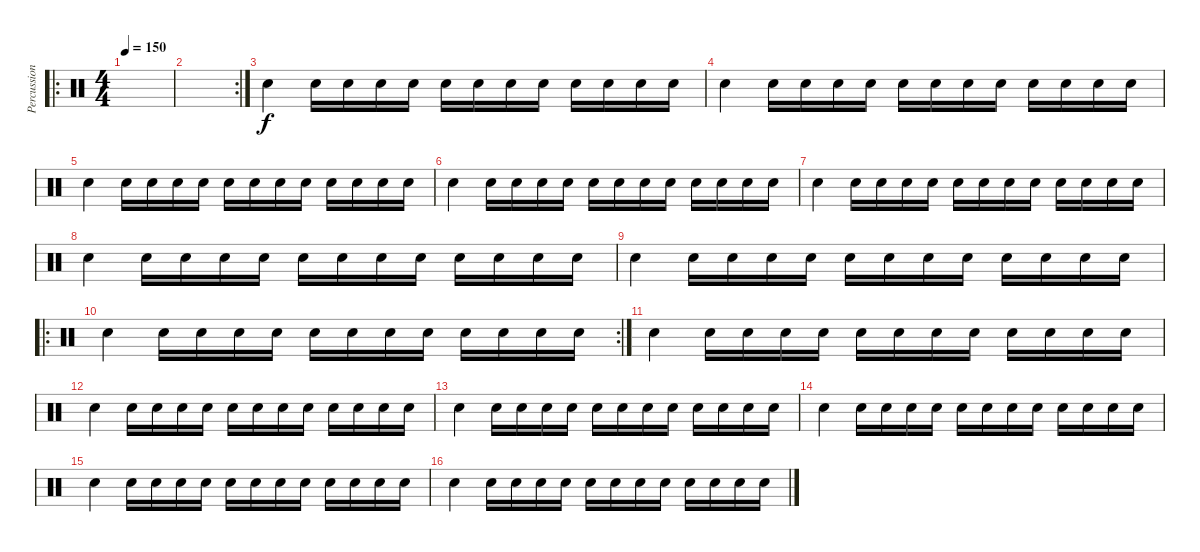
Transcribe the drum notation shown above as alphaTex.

\track ("Percussion" "Percussion") {instrument percussion}
\staff {score}
\articulation defaults
\ro
\ts (4 4)
\tempo 150
\clef neutral
\ks c
|
\rc 2
|
"Snare (hit) 2".4 "Snare (hit) 2".16 "Snare (hit) 2".16 "Snare (hit) 2".16 "Snare (hit) 2".16 "Snare (hit) 2".16 "Snare (hit) 2".16 "Snare (hit) 2".16 "Snare (hit) 2".16 "Snare (hit) 2".16 "Snare (hit) 2".16 "Snare (hit) 2".16 "Snare (hit) 2".16 |
"Snare (hit) 2".4 "Snare (hit) 2".16 "Snare (hit) 2".16 "Snare (hit) 2".16 "Snare (hit) 2".16 "Snare (hit) 2".16 "Snare (hit) 2".16 "Snare (hit) 2".16 "Snare (hit) 2".16 "Snare (hit) 2".16 "Snare (hit) 2".16 "Snare (hit) 2".16 "Snare (hit) 2".16 |
"Snare (hit) 2".4 "Snare (hit) 2".16 "Snare (hit) 2".16 "Snare (hit) 2".16 "Snare (hit) 2".16 "Snare (hit) 2".16 "Snare (hit) 2".16 "Snare (hit) 2".16 "Snare (hit) 2".16 "Snare (hit) 2".16 "Snare (hit) 2".16 "Snare (hit) 2".16 "Snare (hit) 2".16 |
"Snare (hit) 2".4 "Snare (hit) 2".16 "Snare (hit) 2".16 "Snare (hit) 2".16 "Snare (hit) 2".16 "Snare (hit) 2".16 "Snare (hit) 2".16 "Snare (hit) 2".16 "Snare (hit) 2".16 "Snare (hit) 2".16 "Snare (hit) 2".16 "Snare (hit) 2".16 "Snare (hit) 2".16 |
"Snare (hit) 2".4 "Snare (hit) 2".16 "Snare (hit) 2".16 "Snare (hit) 2".16 "Snare (hit) 2".16 "Snare (hit) 2".16 "Snare (hit) 2".16 "Snare (hit) 2".16 "Snare (hit) 2".16 "Snare (hit) 2".16 "Snare (hit) 2".16 "Snare (hit) 2".16 "Snare (hit) 2".16 |
"Snare (hit) 2".4 "Snare (hit) 2".16 "Snare (hit) 2".16 "Snare (hit) 2".16 "Snare (hit) 2".16 "Snare (hit) 2".16 "Snare (hit) 2".16 "Snare (hit) 2".16 "Snare (hit) 2".16 "Snare (hit) 2".16 "Snare (hit) 2".16 "Snare (hit) 2".16 "Snare (hit) 2".16 |
"Snare (hit) 2".4 "Snare (hit) 2".16 "Snare (hit) 2".16 "Snare (hit) 2".16 "Snare (hit) 2".16 "Snare (hit) 2".16 "Snare (hit) 2".16 "Snare (hit) 2".16 "Snare (hit) 2".16 "Snare (hit) 2".16 "Snare (hit) 2".16 "Snare (hit) 2".16 "Snare (hit) 2".16 |
\ro
\rc 2 "Snare (hit) 2".4 "Snare (hit) 2".16 "Snare (hit) 2".16 "Snare (hit) 2".16 "Snare (hit) 2".16 "Snare (hit) 2".16 "Snare (hit) 2".16 "Snare (hit) 2".16 "Snare (hit) 2".16 "Snare (hit) 2".16 "Snare (hit) 2".16 "Snare (hit) 2".16 "Snare (hit) 2".16
|
"Snare (hit) 2".4 "Snare (hit) 2".16 "Snare (hit) 2".16 "Snare (hit) 2".16 "Snare (hit) 2".16 "Snare (hit) 2".16 "Snare (hit) 2".16 "Snare (hit) 2".16 "Snare (hit) 2".16 "Snare (hit) 2".16 "Snare (hit) 2".16 "Snare (hit) 2".16 "Snare (hit) 2".16 |
"Snare (hit) 2".4 "Snare (hit) 2".16 "Snare (hit) 2".16 "Snare (hit) 2".16 "Snare (hit) 2".16 "Snare (hit) 2".16 "Snare (hit) 2".16 "Snare (hit) 2".16 "Snare (hit) 2".16 "Snare (hit) 2".16 "Snare (hit) 2".16 "Snare (hit) 2".16 "Snare (hit) 2".16 |
"Snare (hit) 2".4 "Snare (hit) 2".16 "Snare (hit) 2".16 "Snare (hit) 2".16 "Snare (hit) 2".16 "Snare (hit) 2".16 "Snare (hit) 2".16 "Snare (hit) 2".16 "Snare (hit) 2".16 "Snare (hit) 2".16 "Snare (hit) 2".16 "Snare (hit) 2".16 "Snare (hit) 2".16 |
"Snare (hit) 2".4 "Snare (hit) 2".16 "Snare (hit) 2".16 "Snare (hit) 2".16 "Snare (hit) 2".16 "Snare (hit) 2".16 "Snare (hit) 2".16 "Snare (hit) 2".16 "Snare (hit) 2".16 "Snare (hit) 2".16 "Snare (hit) 2".16 "Snare (hit) 2".16 "Snare (hit) 2".16 |
"Snare (hit) 2".4 "Snare (hit) 2".16 "Snare (hit) 2".16 "Snare (hit) 2".16 "Snare (hit) 2".16 "Snare (hit) 2".16 "Snare (hit) 2".16 "Snare (hit) 2".16 "Snare (hit) 2".16 "Snare (hit) 2".16 "Snare (hit) 2".16 "Snare (hit) 2".16 "Snare (hit) 2".16 |
"Snare (hit) 2".4 "Snare (hit) 2".16 "Snare (hit) 2".16 "Snare (hit) 2".16 "Snare (hit) 2".16 "Snare (hit) 2".16 "Snare (hit) 2".16 "Snare (hit) 2".16 "Snare (hit) 2".16 "Snare (hit) 2".16 "Snare (hit) 2".16 "Snare (hit) 2".16 "Snare (hit) 2".16
